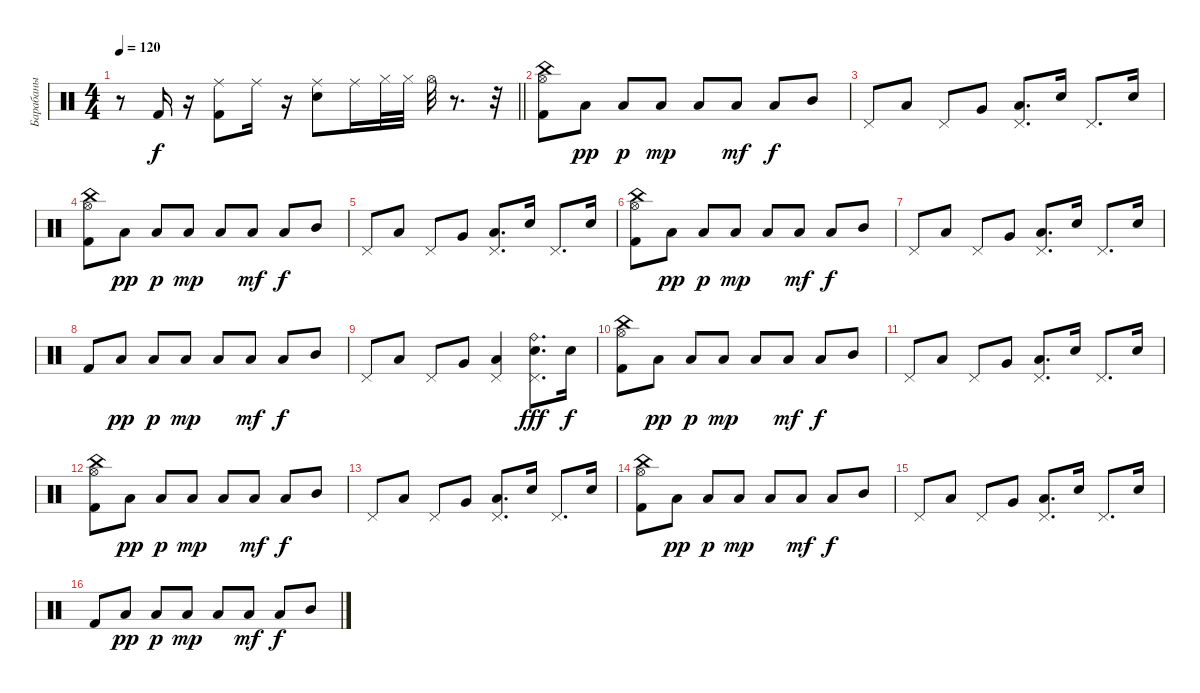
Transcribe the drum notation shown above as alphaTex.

\track ("Барабаны" "Барабаны") {instrument percussion}
\staff {score}
\articulation defaults
\ts (4 4)
\tempo 120
\clef neutral
\barLineRight lightlight
\ks c
r.8{dy f} "Kick (hit) 2".16 r.16 ("Kick (hit) 2" "Ride (middle)").8 "Ride (middle)".16 r.16 ("Snare (hit) 2" "Ride (middle)").8 "Ride (middle)".16 "Hi-Hat (closed)".32 "Hi-Hat (closed)".32 "Hi-Hat (open)".32 r.8{d} r.32 |
\section ("" " ")
("Kick (hit) 2" "Hi-Hat (open)" "China (hit)").8 "Low Floor Tom (hit)".8{dy pp} "Low Floor Tom (hit)".8{dy p} "Low Floor Tom (hit)".8{dy mp} "Low Floor Tom (hit)".8 "Low Floor Tom (hit)".8{dy mf} "Low Floor Tom (hit)".8{dy f} "Mid Tom (hit)".8 |
"Pedal Hi-Hat (hit)".8 "Low Tom (hit)".8 "Pedal Hi-Hat (hit)".8 "Very Low Tom (hit)".8 ("Low Floor Tom (hit)" "Pedal Hi-Hat (hit)").8{d} "Snare (hit) 2".16 "Pedal Hi-Hat (hit)".8{d} "Snare (hit) 2".16 |
("Kick (hit) 2" "Hi-Hat (open)" "China (hit)").8 "Low Floor Tom (hit)".8{dy pp} "Low Floor Tom (hit)".8{dy p} "Low Floor Tom (hit)".8{dy mp} "Low Floor Tom (hit)".8 "Low Floor Tom (hit)".8{dy mf} "Low Floor Tom (hit)".8{dy f} "Mid Tom (hit)".8 |
"Pedal Hi-Hat (hit)".8 "Low Tom (hit)".8 "Pedal Hi-Hat (hit)".8 "Very Low Tom (hit)".8 ("Low Floor Tom (hit)" "Pedal Hi-Hat (hit)").8{d} "Snare (hit) 2".16 "Pedal Hi-Hat (hit)".8{d} "Snare (hit) 2".16 |
("Kick (hit) 2" "Hi-Hat (open)" "China (hit)").8 "Low Floor Tom (hit)".8{dy pp} "Low Floor Tom (hit)".8{dy p} "Low Floor Tom (hit)".8{dy mp} "Low Floor Tom (hit)".8 "Low Floor Tom (hit)".8{dy mf} "Low Floor Tom (hit)".8{dy f} "Mid Tom (hit)".8 |
"Pedal Hi-Hat (hit)".8 "Low Tom (hit)".8 "Pedal Hi-Hat (hit)".8 "Very Low Tom (hit)".8 ("Low Floor Tom (hit)" "Pedal Hi-Hat (hit)").8{d} "Snare (hit) 2".16 "Pedal Hi-Hat (hit)".8{d} "Snare (hit) 2".16 |
"Kick (hit) 2".8 "Low Floor Tom (hit)".8{dy pp} "Low Floor Tom (hit)".8{dy p} "Low Floor Tom (hit)".8{dy mp} "Low Floor Tom (hit)".8 "Low Floor Tom (hit)".8{dy mf} "Low Floor Tom (hit)".8{dy f} "Mid Tom (hit)".8 |
"Pedal Hi-Hat (hit)".8 "Low Tom (hit)".8 "Pedal Hi-Hat (hit)".8 "Very Low Tom (hit)".8 ("Low Floor Tom (hit)" "Pedal Hi-Hat (hit)").4 ("Snare (hit) 2" "Pedal Hi-Hat (hit)" "Ride (bell)").8{d dy fff} "Snare (hit) 2".16{dy f} |
("Kick (hit) 2" "Hi-Hat (open)" "China (hit)").8 "Low Floor Tom (hit)".8{dy pp} "Low Floor Tom (hit)".8{dy p} "Low Floor Tom (hit)".8{dy mp} "Low Floor Tom (hit)".8 "Low Floor Tom (hit)".8{dy mf} "Low Floor Tom (hit)".8{dy f} "Mid Tom (hit)".8 |
"Pedal Hi-Hat (hit)".8 "Low Tom (hit)".8 "Pedal Hi-Hat (hit)".8 "Very Low Tom (hit)".8 ("Low Floor Tom (hit)" "Pedal Hi-Hat (hit)").8{d} "Snare (hit) 2".16 "Pedal Hi-Hat (hit)".8{d} "Snare (hit) 2".16 |
("Kick (hit) 2" "Hi-Hat (open)" "China (hit)").8 "Low Floor Tom (hit)".8{dy pp} "Low Floor Tom (hit)".8{dy p} "Low Floor Tom (hit)".8{dy mp} "Low Floor Tom (hit)".8 "Low Floor Tom (hit)".8{dy mf} "Low Floor Tom (hit)".8{dy f} "Mid Tom (hit)".8 |
"Pedal Hi-Hat (hit)".8 "Low Tom (hit)".8 "Pedal Hi-Hat (hit)".8 "Very Low Tom (hit)".8 ("Low Floor Tom (hit)" "Pedal Hi-Hat (hit)").8{d} "Snare (hit) 2".16 "Pedal Hi-Hat (hit)".8{d} "Snare (hit) 2".16 |
("Kick (hit) 2" "Hi-Hat (open)" "China (hit)").8 "Low Floor Tom (hit)".8{dy pp} "Low Floor Tom (hit)".8{dy p} "Low Floor Tom (hit)".8{dy mp} "Low Floor Tom (hit)".8 "Low Floor Tom (hit)".8{dy mf} "Low Floor Tom (hit)".8{dy f} "Mid Tom (hit)".8 |
"Pedal Hi-Hat (hit)".8 "Low Tom (hit)".8 "Pedal Hi-Hat (hit)".8 "Very Low Tom (hit)".8 ("Low Floor Tom (hit)" "Pedal Hi-Hat (hit)").8{d} "Snare (hit) 2".16 "Pedal Hi-Hat (hit)".8{d} "Snare (hit) 2".16 |
"Kick (hit) 2".8 "Low Floor Tom (hit)".8{dy pp} "Low Floor Tom (hit)".8{dy p} "Low Floor Tom (hit)".8{dy mp} "Low Floor Tom (hit)".8 "Low Floor Tom (hit)".8{dy mf} "Low Floor Tom (hit)".8{dy f} "Mid Tom (hit)".8
